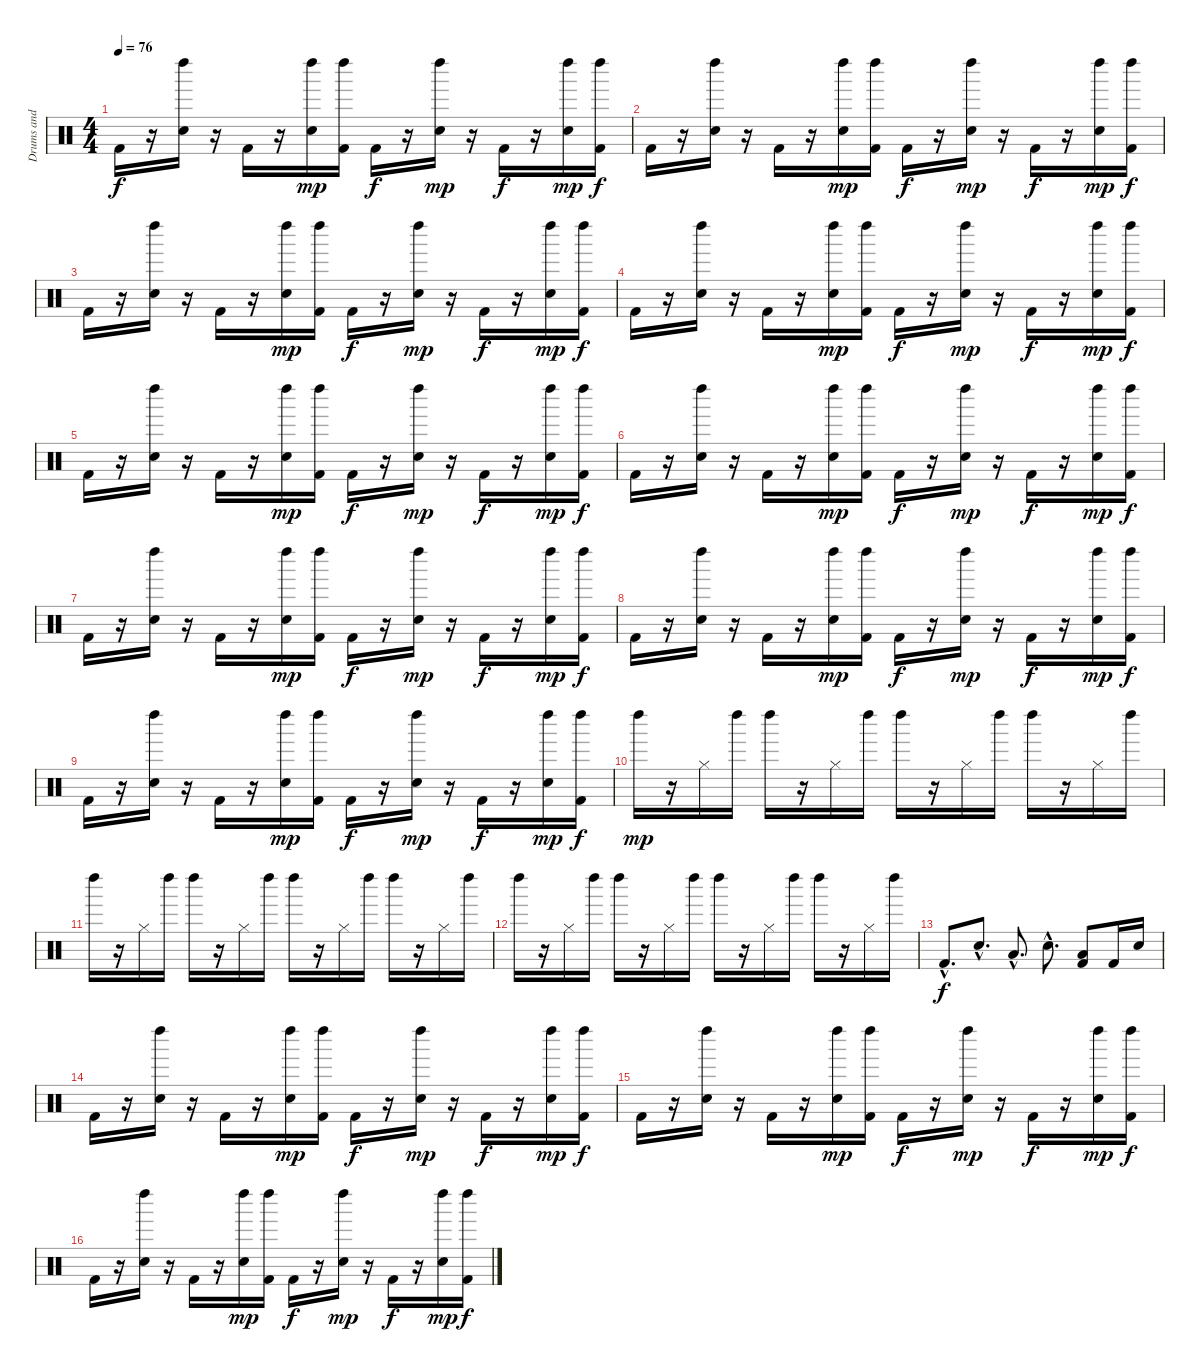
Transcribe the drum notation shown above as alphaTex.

\track ("Drums and Percussion" "Drums and ") {instrument percussion}
\staff {score}
\articulation defaults
\ts (4 4)
\tempo 76
\clef neutral
\ks c "Kick (hit) 2".16{dy f}
r.16 ("Snare (hit) 2" "Left Maraca (hit)").16 r.16 "Kick (hit) 2".16 r.16 ("Snare (hit) 2" "Left Maraca (hit)").16{dy mp} ("Left Maraca (hit)" "Kick (hit) 2").16 "Kick (hit) 2".16{dy f} r.16 ("Snare (hit) 2" "Left Maraca (hit)").16{dy mp} r.16 "Kick (hit) 2".16{dy f} r.16 ("Snare (hit) 2" "Left Maraca (hit)").16{dy mp} ("Left Maraca (hit)" "Kick (hit) 2").16{dy f} |
"Kick (hit) 2".16 r.16 ("Snare (hit) 2" "Left Maraca (hit)").16 r.16 "Kick (hit) 2".16 r.16 ("Snare (hit) 2" "Left Maraca (hit)").16{dy mp} ("Left Maraca (hit)" "Kick (hit) 2").16 "Kick (hit) 2".16{dy f} r.16 ("Snare (hit) 2" "Left Maraca (hit)").16{dy mp} r.16 "Kick (hit) 2".16{dy f} r.16 ("Snare (hit) 2" "Left Maraca (hit)").16{dy mp} ("Left Maraca (hit)" "Kick (hit) 2").16{dy f} |
"Kick (hit) 2".16 r.16 ("Snare (hit) 2" "Left Maraca (hit)").16 r.16 "Kick (hit) 2".16 r.16 ("Snare (hit) 2" "Left Maraca (hit)").16{dy mp} ("Left Maraca (hit)" "Kick (hit) 2").16 "Kick (hit) 2".16{dy f} r.16 ("Snare (hit) 2" "Left Maraca (hit)").16{dy mp} r.16 "Kick (hit) 2".16{dy f} r.16 ("Snare (hit) 2" "Left Maraca (hit)").16{dy mp} ("Left Maraca (hit)" "Kick (hit) 2").16{dy f} |
"Kick (hit) 2".16 r.16 ("Snare (hit) 2" "Left Maraca (hit)").16 r.16 "Kick (hit) 2".16 r.16 ("Snare (hit) 2" "Left Maraca (hit)").16{dy mp} ("Left Maraca (hit)" "Kick (hit) 2").16 "Kick (hit) 2".16{dy f} r.16 ("Snare (hit) 2" "Left Maraca (hit)").16{dy mp} r.16 "Kick (hit) 2".16{dy f} r.16 ("Snare (hit) 2" "Left Maraca (hit)").16{dy mp} ("Left Maraca (hit)" "Kick (hit) 2").16{dy f} |
"Kick (hit) 2".16 r.16 ("Snare (hit) 2" "Left Maraca (hit)").16 r.16 "Kick (hit) 2".16 r.16 ("Snare (hit) 2" "Left Maraca (hit)").16{dy mp} ("Left Maraca (hit)" "Kick (hit) 2").16 "Kick (hit) 2".16{dy f} r.16 ("Snare (hit) 2" "Left Maraca (hit)").16{dy mp} r.16 "Kick (hit) 2".16{dy f} r.16 ("Snare (hit) 2" "Left Maraca (hit)").16{dy mp} ("Left Maraca (hit)" "Kick (hit) 2").16{dy f} |
"Kick (hit) 2".16 r.16 ("Snare (hit) 2" "Left Maraca (hit)").16 r.16 "Kick (hit) 2".16 r.16 ("Snare (hit) 2" "Left Maraca (hit)").16{dy mp} ("Left Maraca (hit)" "Kick (hit) 2").16 "Kick (hit) 2".16{dy f} r.16 ("Snare (hit) 2" "Left Maraca (hit)").16{dy mp} r.16 "Kick (hit) 2".16{dy f} r.16 ("Snare (hit) 2" "Left Maraca (hit)").16{dy mp} ("Left Maraca (hit)" "Kick (hit) 2").16{dy f} |
"Kick (hit) 2".16 r.16 ("Snare (hit) 2" "Left Maraca (hit)").16 r.16 "Kick (hit) 2".16 r.16 ("Snare (hit) 2" "Left Maraca (hit)").16{dy mp} ("Left Maraca (hit)" "Kick (hit) 2").16 "Kick (hit) 2".16{dy f} r.16 ("Snare (hit) 2" "Left Maraca (hit)").16{dy mp} r.16 "Kick (hit) 2".16{dy f} r.16 ("Snare (hit) 2" "Left Maraca (hit)").16{dy mp} ("Left Maraca (hit)" "Kick (hit) 2").16{dy f} |
"Kick (hit) 2".16 r.16 ("Snare (hit) 2" "Left Maraca (hit)").16 r.16 "Kick (hit) 2".16 r.16 ("Snare (hit) 2" "Left Maraca (hit)").16{dy mp} ("Left Maraca (hit)" "Kick (hit) 2").16 "Kick (hit) 2".16{dy f} r.16 ("Snare (hit) 2" "Left Maraca (hit)").16{dy mp} r.16 "Kick (hit) 2".16{dy f} r.16 ("Snare (hit) 2" "Left Maraca (hit)").16{dy mp} ("Left Maraca (hit)" "Kick (hit) 2").16{dy f} |
"Kick (hit) 2".16 r.16 ("Snare (hit) 2" "Left Maraca (hit)").16 r.16 "Kick (hit) 2".16 r.16 ("Snare (hit) 2" "Left Maraca (hit)").16{dy mp} ("Left Maraca (hit)" "Kick (hit) 2").16 "Kick (hit) 2".16{dy f} r.16 ("Snare (hit) 2" "Left Maraca (hit)").16{dy mp} r.16 "Kick (hit) 2".16{dy f} r.16 ("Snare (hit) 2" "Left Maraca (hit)").16{dy mp} ("Left Maraca (hit)" "Kick (hit) 2").16{dy f} |
"Left Maraca (hit)".16{dy mp} r.16 "Hi-Hat (closed)".16 "Left Maraca (hit)".16 "Left Maraca (hit)".16 r.16 "Hi-Hat (closed)".16 "Left Maraca (hit)".16 "Left Maraca (hit)".16 r.16 "Hi-Hat (closed)".16 "Left Maraca (hit)".16 "Left Maraca (hit)".16 r.16 "Hi-Hat (closed)".16 "Left Maraca (hit)".16 |
"Left Maraca (hit)".16 r.16 "Hi-Hat (closed)".16 "Left Maraca (hit)".16 "Left Maraca (hit)".16 r.16 "Hi-Hat (closed)".16 "Left Maraca (hit)".16 "Left Maraca (hit)".16 r.16 "Hi-Hat (closed)".16 "Left Maraca (hit)".16 "Left Maraca (hit)".16 r.16 "Hi-Hat (closed)".16 "Left Maraca (hit)".16 |
"Left Maraca (hit)".16 r.16 "Hi-Hat (closed)".16 "Left Maraca (hit)".16 "Left Maraca (hit)".16 r.16 "Hi-Hat (closed)".16 "Left Maraca (hit)".16 "Left Maraca (hit)".16 r.16 "Hi-Hat (closed)".16 "Left Maraca (hit)".16 "Left Maraca (hit)".16 r.16 "Hi-Hat (closed)".16 "Left Maraca (hit)".16 |
"Kick (hit) 2"{hac}.8{d dy f} "Snare (hit) 2"{hac}.8{d} "Low Tom (hit)"{hac}.8{d} "Snare (hit) 2"{hac}.8{d} ("Low Tom (hit)" "Kick (hit) 2").8 "Kick (hit) 2".16 "Snare (hit) 2".16 |
"Kick (hit) 2".16 r.16 ("Snare (hit) 2" "Left Maraca (hit)").16 r.16 "Kick (hit) 2".16 r.16 ("Snare (hit) 2" "Left Maraca (hit)").16{dy mp} ("Left Maraca (hit)" "Kick (hit) 2").16 "Kick (hit) 2".16{dy f} r.16 ("Snare (hit) 2" "Left Maraca (hit)").16{dy mp} r.16 "Kick (hit) 2".16{dy f} r.16 ("Snare (hit) 2" "Left Maraca (hit)").16{dy mp} ("Left Maraca (hit)" "Kick (hit) 2").16{dy f} |
"Kick (hit) 2".16 r.16 ("Snare (hit) 2" "Left Maraca (hit)").16 r.16 "Kick (hit) 2".16 r.16 ("Snare (hit) 2" "Left Maraca (hit)").16{dy mp} ("Left Maraca (hit)" "Kick (hit) 2").16 "Kick (hit) 2".16{dy f} r.16 ("Snare (hit) 2" "Left Maraca (hit)").16{dy mp} r.16 "Kick (hit) 2".16{dy f} r.16 ("Snare (hit) 2" "Left Maraca (hit)").16{dy mp} ("Left Maraca (hit)" "Kick (hit) 2").16{dy f} |
"Kick (hit) 2".16 r.16 ("Snare (hit) 2" "Left Maraca (hit)").16 r.16 "Kick (hit) 2".16 r.16 ("Snare (hit) 2" "Left Maraca (hit)").16{dy mp} ("Left Maraca (hit)" "Kick (hit) 2").16 "Kick (hit) 2".16{dy f} r.16 ("Snare (hit) 2" "Left Maraca (hit)").16{dy mp} r.16 "Kick (hit) 2".16{dy f} r.16 ("Snare (hit) 2" "Left Maraca (hit)").16{dy mp} ("Left Maraca (hit)" "Kick (hit) 2").16{dy f}
